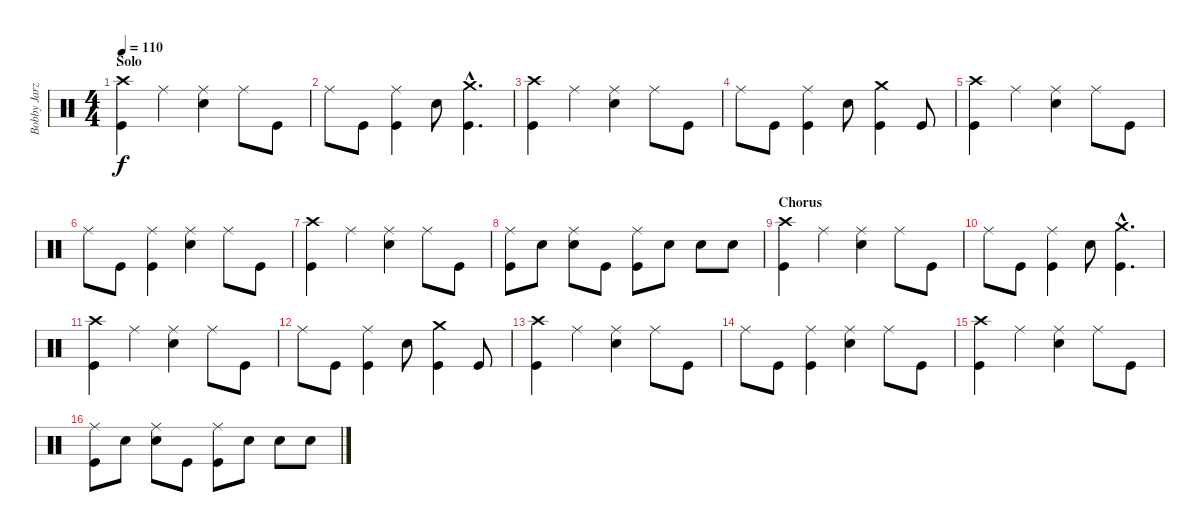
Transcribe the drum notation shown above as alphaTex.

\track ("Bobby Jarzombek" "Bobby Jarz") {instrument percussion}
\staff {score}
\articulation defaults
\ts (4 4)
\section ("" "Solo")
\tempo 110
\clef neutral
\ks c
("Crash high (hit)" "Kick (hit)").4{dy f} "Ride (middle)".4 ("Ride (middle)" "Electric Snare (hit)").4 "Ride (middle)".8 "Kick (hit)".8 |
"Ride (middle)".8 "Kick (hit)".8 ("Ride (middle)" "Kick (hit)").4 "Electric Snare (hit)".8 ("Crash medium (hit)"{hac} "Kick (hit)"{hac}).4{d} |
("Crash high (hit)" "Kick (hit)").4 "Ride (middle)".4 ("Ride (middle)" "Electric Snare (hit)").4 "Ride (middle)".8 "Kick (hit)".8 |
"Ride (middle)".8 "Kick (hit)".8 ("Ride (middle)" "Kick (hit)").4 "Electric Snare (hit)".8 ("Crash medium (hit)" "Kick (hit)").4 "Kick (hit)".8 |
("Crash high (hit)" "Kick (hit)").4 "Ride (middle)".4 ("Ride (middle)" "Electric Snare (hit)").4 "Ride (middle)".8 "Kick (hit)".8 |
"Ride (middle)".8 "Kick (hit)".8 ("Ride (middle)" "Kick (hit)").4 ("Ride (middle)" "Electric Snare (hit)").4 "Ride (middle)".8 "Kick (hit)".8 |
("Crash high (hit)" "Kick (hit)").4 "Ride (middle)".4 ("Ride (middle)" "Electric Snare (hit)").4 "Ride (middle)".8 "Kick (hit)".8 |
("Ride (middle)" "Kick (hit)").8 "Electric Snare (hit)".8 ("Ride (middle)" "Electric Snare (hit)").8 "Kick (hit)".8 ("Ride (middle)" "Kick (hit)").8 "Electric Snare (hit)".8 "Electric Snare (hit)".8 "Electric Snare (hit)".8 |
\section ("" "Chorus")
("Crash high (hit)" "Kick (hit)").4 "Ride (middle)".4 ("Ride (middle)" "Electric Snare (hit)").4 "Ride (middle)".8 "Kick (hit)".8 |
"Ride (middle)".8 "Kick (hit)".8 ("Ride (middle)" "Kick (hit)").4 "Electric Snare (hit)".8 ("Crash medium (hit)"{hac} "Kick (hit)"{hac}).4{d} |
("Crash high (hit)" "Kick (hit)").4 "Ride (middle)".4 ("Ride (middle)" "Electric Snare (hit)").4 "Ride (middle)".8 "Kick (hit)".8 |
"Ride (middle)".8 "Kick (hit)".8 ("Ride (middle)" "Kick (hit)").4 "Electric Snare (hit)".8 ("Crash medium (hit)" "Kick (hit)").4 "Kick (hit)".8 |
("Crash high (hit)" "Kick (hit)").4 "Ride (middle)".4 ("Ride (middle)" "Electric Snare (hit)").4 "Ride (middle)".8 "Kick (hit)".8 |
"Ride (middle)".8 "Kick (hit)".8 ("Ride (middle)" "Kick (hit)").4 ("Ride (middle)" "Electric Snare (hit)").4 "Ride (middle)".8 "Kick (hit)".8 |
("Crash high (hit)" "Kick (hit)").4 "Ride (middle)".4 ("Ride (middle)" "Electric Snare (hit)").4 "Ride (middle)".8 "Kick (hit)".8 |
("Ride (middle)" "Kick (hit)").8 "Electric Snare (hit)".8 ("Ride (middle)" "Electric Snare (hit)").8 "Kick (hit)".8 ("Ride (middle)" "Kick (hit)").8 "Electric Snare (hit)".8 "Electric Snare (hit)".8 "Electric Snare (hit)".8
